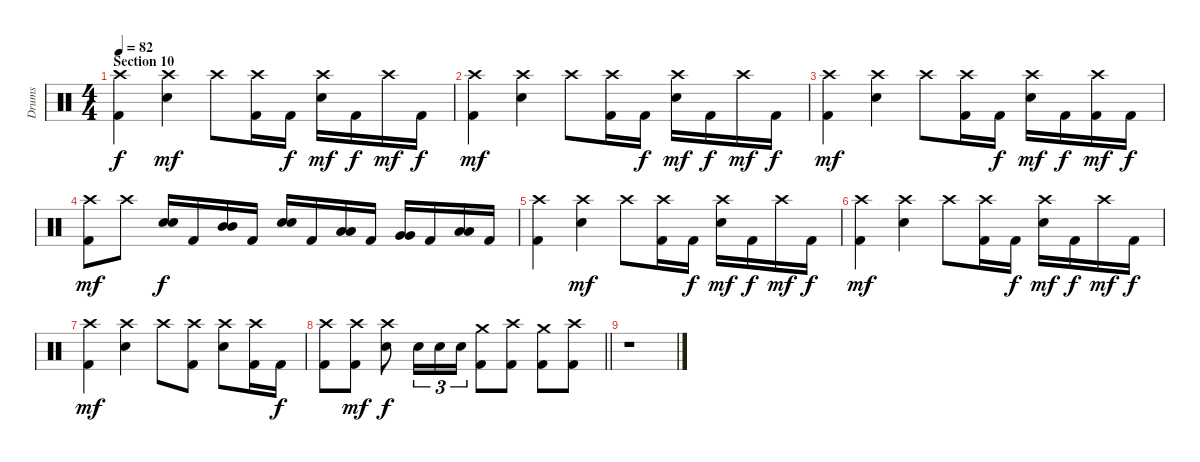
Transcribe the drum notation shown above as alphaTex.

\track ("Drums" "Drums") {instrument percussion}
\staff {score}
\articulation defaults
\ts (4 4)
\section ("" "Section 10")
\tempo 82
\clef neutral
\ks c
("Crash high (hit)" "Kick (hit) 2").4{dy f} ("Crash high (hit)" "Electric Snare (hit)").4{dy mf} "Crash high (hit)".8 ("Crash high (hit)" "Kick (hit) 2").16 "Kick (hit) 2".16{dy f} ("Crash high (hit)" "Electric Snare (hit)").16{dy mf} "Kick (hit) 2".16{dy f} "Crash high (hit)".16{dy mf} "Kick (hit) 2".16{dy f} |
("Crash high (hit)" "Kick (hit) 2").4{dy mf} ("Crash high (hit)" "Electric Snare (hit)").4 "Crash high (hit)".8 ("Crash high (hit)" "Kick (hit) 2").16 "Kick (hit) 2".16{dy f} ("Crash high (hit)" "Electric Snare (hit)").16{dy mf} "Kick (hit) 2".16{dy f} "Crash high (hit)".16{dy mf} "Kick (hit) 2".16{dy f} |
("Crash high (hit)" "Kick (hit) 2").4{dy mf} ("Crash high (hit)" "Electric Snare (hit)").4 "Crash high (hit)".8 ("Crash high (hit)" "Kick (hit) 2").16 "Kick (hit) 2".16{dy f} ("Crash high (hit)" "Electric Snare (hit)").16{dy mf} "Kick (hit) 2".16{dy f} ("Crash high (hit)" "Kick (hit) 2").16{dy mf} "Kick (hit) 2".16{dy f} |
("Crash high (hit)" "Kick (hit) 2").8{dy mf} "Crash high (hit)".8 ("Electric Snare (hit)" "Electric Snare (hit)").16{bu 60 dy f} "Kick (hit) 2".16 ("Mid Tom (hit)" "Mid Tom (hit)").16{bu 60} "Kick (hit) 2".16 ("Electric Snare (hit)" "Electric Snare (hit)").16{bu 60} "Kick (hit) 2".16 ("Low Tom (hit)" "Low Tom (hit)").16{bu 60} "Kick (hit) 2".16 ("Very Low Tom (hit)" "Very Low Tom (hit)").16{bu 60} "Kick (hit) 2".16 ("Low Floor Tom (hit)" "Low Floor Tom (hit)").16{bu 60} "Kick (hit) 2".16 |
("Crash high (hit)" "Kick (hit) 2").4 ("Crash high (hit)" "Electric Snare (hit)").4{dy mf} "Crash high (hit)".8 ("Crash high (hit)" "Kick (hit) 2").16 "Kick (hit) 2".16{dy f} ("Crash high (hit)" "Electric Snare (hit)").16{dy mf} "Kick (hit) 2".16{dy f} "Crash high (hit)".16{dy mf} "Kick (hit) 2".16{dy f} |
("Crash high (hit)" "Kick (hit) 2").4{dy mf} ("Crash high (hit)" "Electric Snare (hit)").4 "Crash high (hit)".8 ("Crash high (hit)" "Kick (hit) 2").16 "Kick (hit) 2".16{dy f} ("Crash high (hit)" "Electric Snare (hit)").16{dy mf} "Kick (hit) 2".16{dy f} "Crash high (hit)".16{dy mf} "Kick (hit) 2".16{dy f} |
("Crash high (hit)" "Kick (hit) 2").4{dy mf} ("Crash high (hit)" "Electric Snare (hit)").4 "Crash high (hit)".8 ("Crash high (hit)" "Kick (hit) 2").8 ("Crash high (hit)" "Electric Snare (hit)").8 ("Crash high (hit)" "Kick (hit) 2").16 "Kick (hit) 2".16{dy f} |
\barLineRight lightlight
("Crash high (hit)" "Kick (hit) 2").8 ("Crash high (hit)" "Kick (hit) 2").8{dy mf} ("Crash high (hit)" "Electric Snare (hit)").8{dy f} "Electric Snare (hit)".16{tu (3 2)} "Electric Snare (hit)".16{tu (3 2)} "Electric Snare (hit)".16{tu (3 2)} ("Crash medium (hit)" "Kick (hit) 2").8 ("Crash high (hit)" "Kick (hit) 2").8 ("Crash medium (hit)" "Kick (hit) 2").8 ("Crash high (hit)" "Kick (hit) 2").8 |
r.1
